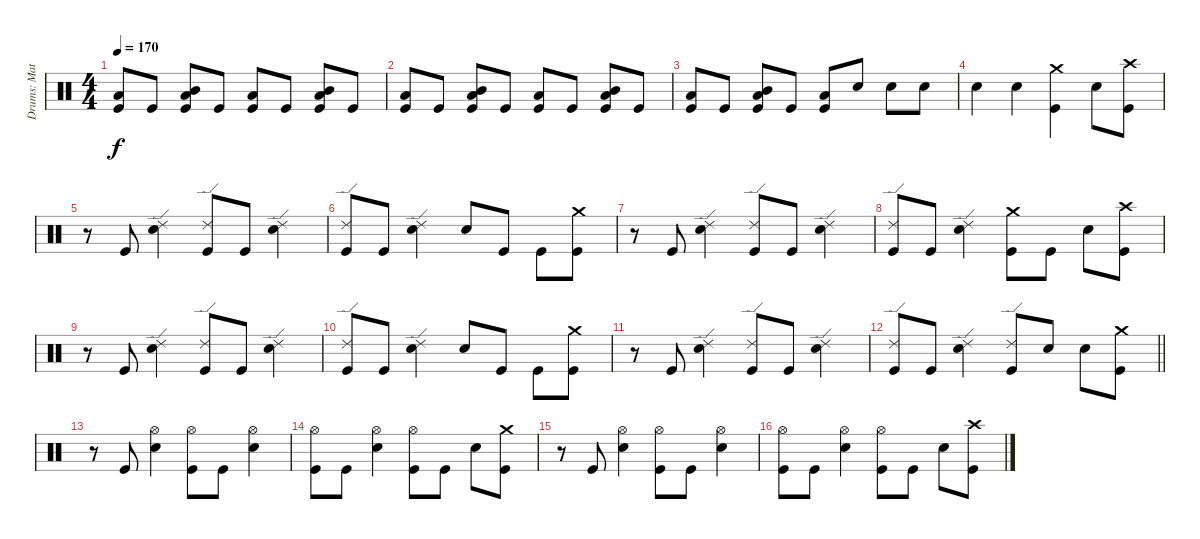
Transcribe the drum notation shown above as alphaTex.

\track ("Drums: Matt" "Drums: Mat") {solo instrument percussion}
\staff {score}
\articulation defaults
\ts (4 4)
\tempo 170
\clef neutral
\ks c
("Low Floor Tom (hit)" "Kick (hit)").8{dy f} "Kick (hit)".8 ("Kick (hit)" "Mid Tom (hit)" "Low Floor Tom (hit)").8 "Kick (hit)".8 ("Low Floor Tom (hit)" "Kick (hit)").8 "Kick (hit)".8 ("Mid Tom (hit)" "Kick (hit)" "Low Floor Tom (hit)").8 "Kick (hit)".8 |
("Kick (hit)" "Low Floor Tom (hit)").8 "Kick (hit)".8 ("Mid Tom (hit)" "Low Floor Tom (hit)" "Kick (hit)").8 "Kick (hit)".8 ("Kick (hit)" "Low Floor Tom (hit)").8 "Kick (hit)".8 ("Kick (hit)" "Low Floor Tom (hit)" "Mid Tom (hit)").8 "Kick (hit)".8 |
("Low Floor Tom (hit)" "Kick (hit)").8 "Kick (hit)".8 ("Mid Tom (hit)" "Low Floor Tom (hit)" "Kick (hit)").8 "Kick (hit)".8 ("Low Floor Tom (hit)" "Kick (hit)").8 "Snare (hit) 2".8 "Snare (hit) 2".8 "Snare (hit) 2".8 |
"Snare (hit) 2".4 "Snare (hit) 2".4 ("Kick (hit)" "Crash medium (hit)").4 "Snare (hit) 2".8 ("Crash high (hit)" "Kick (hit)").8 |
r.8 "Kick (hit)".8 ("Ride (edge) 2" "Snare (hit) 2").4 ("Kick (hit)" "Ride (edge) 2").8 "Kick (hit)".8 ("Ride (edge) 2" "Snare (hit) 2").4 |
("Kick (hit)" "Ride (edge) 2").8 "Kick (hit)".8 ("Ride (edge) 2" "Snare (hit) 2").4 "Snare (hit) 2".8 "Kick (hit)".8 "Kick (hit)".8 ("Crash medium (hit)" "Kick (hit)").8 |
r.8 "Kick (hit)".8 ("Ride (edge) 2" "Snare (hit) 2").4 ("Ride (edge) 2" "Kick (hit)").8 "Kick (hit)".8 ("Ride (edge) 2" "Snare (hit) 2").4 |
("Kick (hit)" "Ride (edge) 2").8 "Kick (hit)".8 ("Snare (hit) 2" "Ride (edge) 2").4 ("Crash medium (hit)" "Kick (hit)").8 "Kick (hit)".8 "Snare (hit) 2".8 ("Crash high (hit)" "Kick (hit)").8 |
r.8 "Kick (hit)".8 ("Snare (hit) 2" "Ride (edge) 2").4 ("Ride (edge) 2" "Kick (hit)").8 "Kick (hit)".8 ("Ride (edge) 2" "Snare (hit) 2").4 |
("Kick (hit)" "Ride (edge) 2").8 "Kick (hit)".8 ("Snare (hit) 2" "Ride (edge) 2").4 "Snare (hit) 2".8 "Kick (hit)".8 "Kick (hit)".8 ("Crash medium (hit)" "Kick (hit)").8 |
r.8 "Kick (hit)".8 ("Snare (hit) 2" "Ride (edge) 2").4 ("Ride (edge) 2" "Kick (hit)").8 "Kick (hit)".8 ("Ride (edge) 2" "Snare (hit) 2").4 |
\barLineRight lightlight
("Kick (hit)" "Ride (edge) 2").8 "Kick (hit)".8 ("Snare (hit) 2" "Ride (edge) 2").4 ("Ride (edge) 2" "Kick (hit)").8 "Snare (hit) 2".8 "Snare (hit) 2".8 ("Kick (hit)" "Crash medium (hit)").8 |
r.8 "Kick (hit)".8 ("Snare (hit) 2" "Hi-Hat (open)").4 ("Hi-Hat (open)" "Kick (hit)").8 "Kick (hit)".8 ("Snare (hit) 2" "Hi-Hat (open)").4 |
("Kick (hit)" "Hi-Hat (open)").8 "Kick (hit)".8 ("Hi-Hat (open)" "Snare (hit) 2").4 ("Hi-Hat (open)" "Kick (hit)").8 "Kick (hit)".8 "Snare (hit) 2".8 ("Kick (hit)" "Crash medium (hit)").8 |
r.8 "Kick (hit)".8 ("Snare (hit) 2" "Hi-Hat (open)").4 ("Hi-Hat (open)" "Kick (hit)").8 "Kick (hit)".8 ("Snare (hit) 2" "Hi-Hat (open)").4 |
("Hi-Hat (open)" "Kick (hit)").8 "Kick (hit)".8 ("Hi-Hat (open)" "Snare (hit) 2").4 ("Kick (hit)" "Hi-Hat (open)").8 "Kick (hit)".8 "Snare (hit) 2".8 ("Kick (hit)" "Crash high (hit)").8
